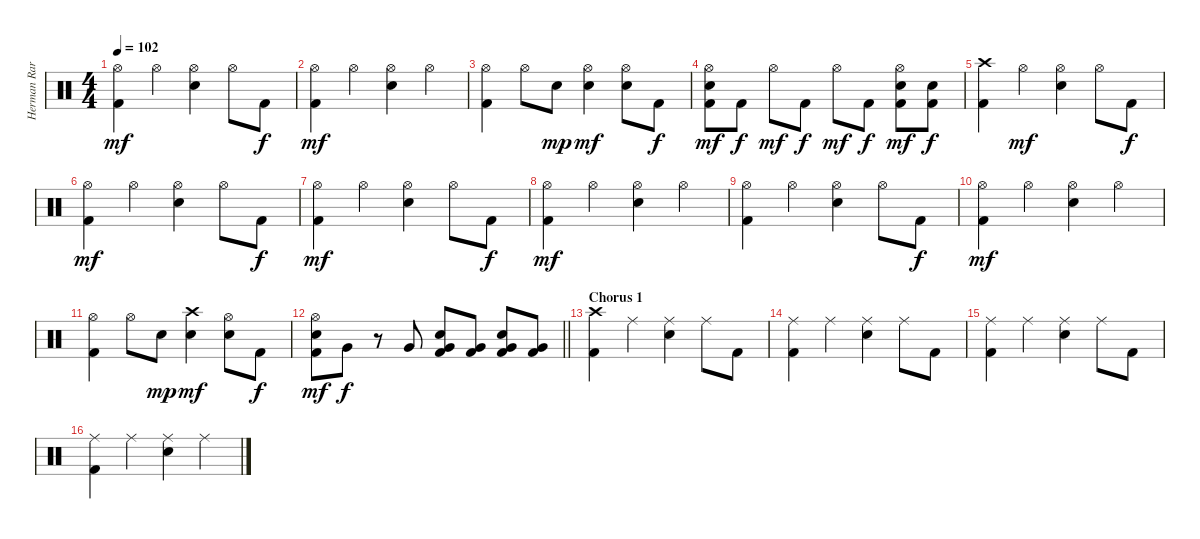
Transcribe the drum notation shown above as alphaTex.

\track ("Herman Rarebell" "Herman Rar") {instrument percussion}
\staff {score}
\articulation defaults
\ts (4 4)
\tempo 102
\clef neutral
\ks c
("Hi-Hat (open)" "Kick (hit) 2").4{dy mf} "Hi-Hat (open)".4 ("Hi-Hat (open)" "Electric Snare (hit)").4 "Hi-Hat (open)".8 "Kick (hit) 2".8{dy f} |
("Hi-Hat (open)" "Kick (hit) 2").4{dy mf} "Hi-Hat (open)".4 ("Hi-Hat (open)" "Electric Snare (hit)").4 "Hi-Hat (open)".4 |
("Hi-Hat (open)" "Kick (hit) 2").4 "Hi-Hat (open)".8 "Electric Snare (hit)".8{dy mp} ("Hi-Hat (open)" "Electric Snare (hit)").4{dy mf} ("Hi-Hat (open)" "Electric Snare (hit)").8 "Kick (hit) 2".8{dy f} |
("Hi-Hat (open)" "Electric Snare (hit)" "Kick (hit) 2").8{dy mf} "Kick (hit) 2".8{dy f} "Hi-Hat (open)".8{dy mf} "Kick (hit) 2".8{dy f} "Hi-Hat (open)".8{dy mf} "Kick (hit) 2".8{dy f} ("Hi-Hat (open)" "Electric Snare (hit)" "Kick (hit) 2").8{dy mf} ("Electric Snare (hit)" "Kick (hit) 2").8{dy f} |
("Crash high (hit)" "Kick (hit) 2").4 "Hi-Hat (open)".4{dy mf} ("Hi-Hat (open)" "Electric Snare (hit)").4 "Hi-Hat (open)".8 "Kick (hit) 2".8{dy f} |
("Hi-Hat (open)" "Kick (hit) 2").4{dy mf} "Hi-Hat (open)".4 ("Hi-Hat (open)" "Electric Snare (hit)").4 "Hi-Hat (open)".8 "Kick (hit) 2".8{dy f} |
("Hi-Hat (open)" "Kick (hit) 2").4{dy mf} "Hi-Hat (open)".4 ("Hi-Hat (open)" "Electric Snare (hit)").4 "Hi-Hat (open)".8 "Kick (hit) 2".8{dy f} |
("Hi-Hat (open)" "Kick (hit) 2").4{dy mf} "Hi-Hat (open)".4 ("Hi-Hat (open)" "Electric Snare (hit)").4 "Hi-Hat (open)".4 |
("Hi-Hat (open)" "Kick (hit) 2").4 "Hi-Hat (open)".4 ("Hi-Hat (open)" "Electric Snare (hit)").4 "Hi-Hat (open)".8 "Kick (hit) 2".8{dy f} |
("Hi-Hat (open)" "Kick (hit) 2").4{dy mf} "Hi-Hat (open)".4 ("Hi-Hat (open)" "Electric Snare (hit)").4 "Hi-Hat (open)".4 |
("Hi-Hat (open)" "Kick (hit) 2").4 "Hi-Hat (open)".8 "Electric Snare (hit)".8{dy mp} ("Crash high (hit)" "Electric Snare (hit)").4{dy mf} ("Hi-Hat (open)" "Electric Snare (hit)").8 "Kick (hit) 2".8{dy f} |
\barLineRight lightlight
("Hi-Hat (open)" "Electric Snare (hit)" "Kick (hit) 2").8{dy mf} "Very Low Tom (hit)".8{dy f} r.8 "Very Low Tom (hit)".8 ("Very Low Tom (hit)" "Electric Snare (hit)" "Kick (hit) 2").8 ("Very Low Tom (hit)" "Kick (hit) 2").8 ("Very Low Tom (hit)" "Electric Snare (hit)" "Kick (hit) 2").8 ("Very Low Tom (hit)" "Kick (hit) 2").8 |
\section ("" "Chorus 1")
("Crash high (hit)" "Kick (hit) 2").4 "Ride (middle)".4 ("Ride (middle)" "Electric Snare (hit)").4 "Ride (middle)".8 "Kick (hit) 2".8 |
("Ride (middle)" "Kick (hit) 2").4 "Ride (middle)".4 ("Ride (middle)" "Electric Snare (hit)").4 "Ride (middle)".8 "Kick (hit) 2".8 |
("Ride (middle)" "Kick (hit) 2").4 "Ride (middle)".4 ("Ride (middle)" "Electric Snare (hit)").4 "Ride (middle)".8 "Kick (hit) 2".8 |
("Ride (middle)" "Kick (hit) 2").4 "Ride (middle)".4 ("Ride (middle)" "Electric Snare (hit)").4 "Ride (middle)".4
